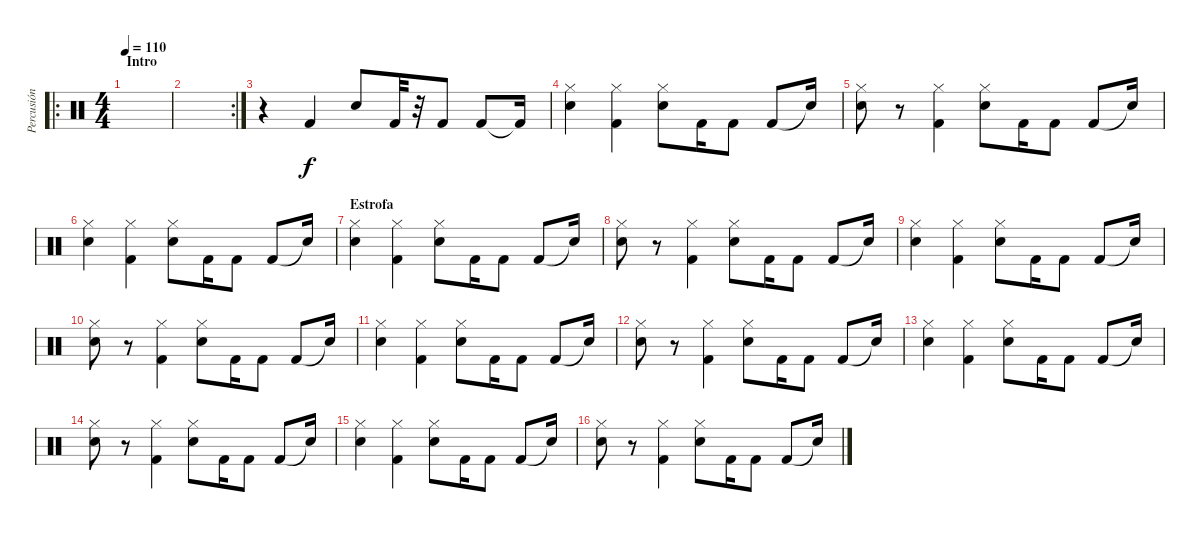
\track ("Percusión" "Percusión") {instrument percussion}
\staff {score}
\articulation defaults
\ro
\ts (4 4)
\section ("" "Intro")
\tempo 110
\clef neutral
\ks c
|
\rc 2
|
r.4 "Kick (hit) 2".4 "Electric Snare (hit)".8 "Kick (hit) 2".32 r.32 "Kick (hit) 2".8 "Kick (hit) 2".8 "Kick (hit) 2"{t}.16 |
("Hi-Hat (closed)" "Electric Snare (hit)").4 ("Hi-Hat (closed)" "Kick (hit) 2").4 ("Hi-Hat (closed)" "Electric Snare (hit)").8 "Kick (hit) 2".16 "Kick (hit) 2".8 "Kick (hit) 2".8 "Snare (hit)"{t}.16 |
("Hi-Hat (closed)" "Electric Snare (hit)").8 r.8 ("Hi-Hat (closed)" "Kick (hit) 2").4 ("Hi-Hat (closed)" "Electric Snare (hit)").8 "Kick (hit) 2".16 "Kick (hit) 2".8 "Kick (hit) 2".8 "Snare (hit)"{t}.16 |
("Hi-Hat (closed)" "Electric Snare (hit)").4 ("Hi-Hat (closed)" "Kick (hit) 2").4 ("Hi-Hat (closed)" "Electric Snare (hit)").8 "Kick (hit) 2".16 "Kick (hit) 2".8 "Kick (hit) 2".8 "Snare (hit)"{t}.16 |
\section ("" "Estrofa")
("Hi-Hat (closed)" "Electric Snare (hit)").4 ("Hi-Hat (closed)" "Kick (hit) 2").4 ("Hi-Hat (closed)" "Electric Snare (hit)").8 "Kick (hit) 2".16 "Kick (hit) 2".8 "Kick (hit) 2".8 "Snare (hit)"{t}.16 |
("Hi-Hat (closed)" "Electric Snare (hit)").8 r.8 ("Hi-Hat (closed)" "Kick (hit) 2").4 ("Hi-Hat (closed)" "Electric Snare (hit)").8 "Kick (hit) 2".16 "Kick (hit) 2".8 "Kick (hit) 2".8 "Snare (hit)"{t}.16 |
("Hi-Hat (closed)" "Electric Snare (hit)").4 ("Hi-Hat (closed)" "Kick (hit) 2").4 ("Hi-Hat (closed)" "Electric Snare (hit)").8 "Kick (hit) 2".16 "Kick (hit) 2".8 "Kick (hit) 2".8 "Snare (hit)"{t}.16 |
("Hi-Hat (closed)" "Electric Snare (hit)").8 r.8 ("Hi-Hat (closed)" "Kick (hit) 2").4 ("Hi-Hat (closed)" "Electric Snare (hit)").8 "Kick (hit) 2".16 "Kick (hit) 2".8 "Kick (hit) 2".8 "Snare (hit)"{t}.16 |
("Hi-Hat (closed)" "Electric Snare (hit)").4 ("Hi-Hat (closed)" "Kick (hit) 2").4 ("Hi-Hat (closed)" "Electric Snare (hit)").8 "Kick (hit) 2".16 "Kick (hit) 2".8 "Kick (hit) 2".8 "Snare (hit)"{t}.16 |
("Hi-Hat (closed)" "Electric Snare (hit)").8 r.8 ("Hi-Hat (closed)" "Kick (hit) 2").4 ("Hi-Hat (closed)" "Electric Snare (hit)").8 "Kick (hit) 2".16 "Kick (hit) 2".8 "Kick (hit) 2".8 "Snare (hit)"{t}.16 |
("Hi-Hat (closed)" "Electric Snare (hit)").4 ("Hi-Hat (closed)" "Kick (hit) 2").4 ("Hi-Hat (closed)" "Electric Snare (hit)").8 "Kick (hit) 2".16 "Kick (hit) 2".8 "Kick (hit) 2".8 "Snare (hit)"{t}.16 |
("Hi-Hat (closed)" "Electric Snare (hit)").8 r.8 ("Hi-Hat (closed)" "Kick (hit) 2").4 ("Hi-Hat (closed)" "Electric Snare (hit)").8 "Kick (hit) 2".16 "Kick (hit) 2".8 "Kick (hit) 2".8 "Snare (hit)"{t}.16 |
("Hi-Hat (closed)" "Electric Snare (hit)").4 ("Hi-Hat (closed)" "Kick (hit) 2").4 ("Hi-Hat (closed)" "Electric Snare (hit)").8 "Kick (hit) 2".16 "Kick (hit) 2".8 "Kick (hit) 2".8 "Snare (hit)"{t}.16 |
("Hi-Hat (closed)" "Electric Snare (hit)").8 r.8 ("Hi-Hat (closed)" "Kick (hit) 2").4 ("Hi-Hat (closed)" "Electric Snare (hit)").8 "Kick (hit) 2".16 "Kick (hit) 2".8 "Kick (hit) 2".8 "Snare (hit)"{t}.16
